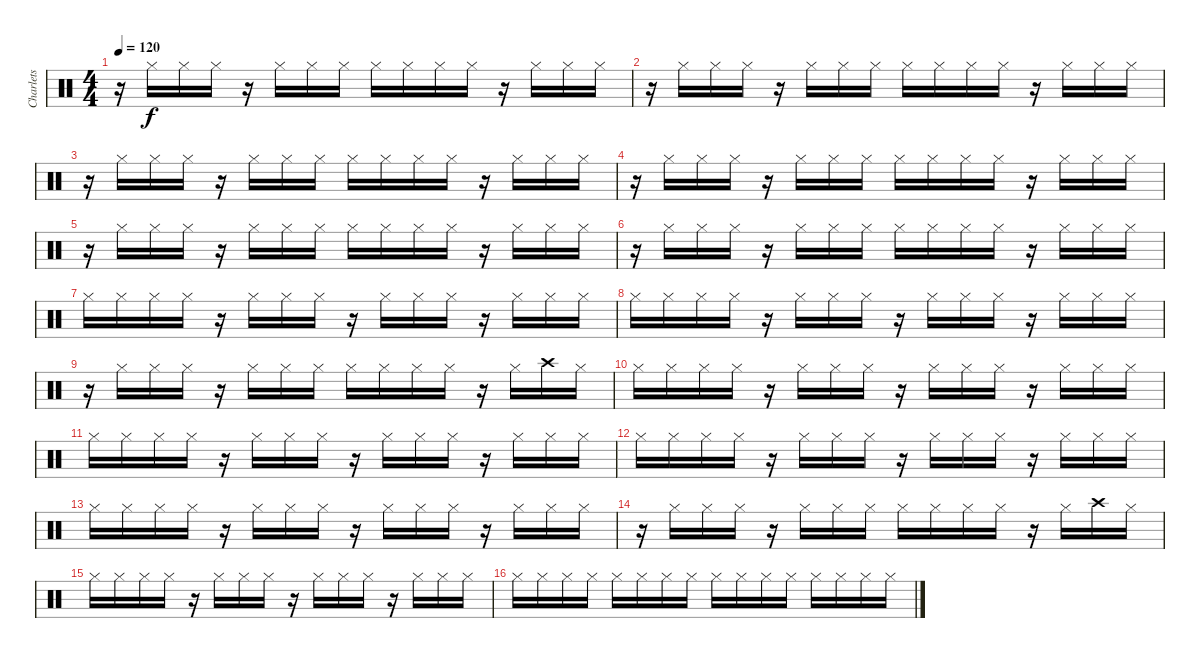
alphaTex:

\track ("Charlets" "Charlets") {instrument percussion}
\staff {score}
\articulation defaults
\ts (4 4)
\tempo 120
\clef neutral
\ks c
r.16{dy f} "Hi-Hat (closed)".16 "Hi-Hat (closed)".16 "Hi-Hat (closed)".16 r.16 "Hi-Hat (closed)".16 "Hi-Hat (closed)".16 "Hi-Hat (closed)".16 "Hi-Hat (closed)".16 "Hi-Hat (closed)".16 "Hi-Hat (closed)".16 "Hi-Hat (closed)".16 r.16 "Hi-Hat (closed)".16 "Hi-Hat (closed)".16 "Hi-Hat (closed)".16 |
r.16 "Hi-Hat (closed)".16 "Hi-Hat (closed)".16 "Hi-Hat (closed)".16 r.16 "Hi-Hat (closed)".16 "Hi-Hat (closed)".16 "Hi-Hat (closed)".16 "Hi-Hat (closed)".16 "Hi-Hat (closed)".16 "Hi-Hat (closed)".16 "Hi-Hat (closed)".16 r.16 "Hi-Hat (closed)".16 "Hi-Hat (closed)".16 "Hi-Hat (closed)".16 |
r.16 "Hi-Hat (closed)".16 "Hi-Hat (closed)".16 "Hi-Hat (closed)".16 r.16 "Hi-Hat (closed)".16 "Hi-Hat (closed)".16 "Hi-Hat (closed)".16 "Hi-Hat (closed)".16 "Hi-Hat (closed)".16 "Hi-Hat (closed)".16 "Hi-Hat (closed)".16 r.16 "Hi-Hat (closed)".16 "Hi-Hat (closed)".16 "Hi-Hat (closed)".16 |
r.16 "Hi-Hat (closed)".16 "Hi-Hat (closed)".16 "Hi-Hat (closed)".16 r.16 "Hi-Hat (closed)".16 "Hi-Hat (closed)".16 "Hi-Hat (closed)".16 "Hi-Hat (closed)".16 "Hi-Hat (closed)".16 "Hi-Hat (closed)".16 "Hi-Hat (closed)".16 r.16 "Hi-Hat (closed)".16 "Hi-Hat (closed)".16 "Hi-Hat (closed)".16 |
r.16 "Hi-Hat (closed)".16 "Hi-Hat (closed)".16 "Hi-Hat (closed)".16 r.16 "Hi-Hat (closed)".16 "Hi-Hat (closed)".16 "Hi-Hat (closed)".16 "Hi-Hat (closed)".16 "Hi-Hat (closed)".16 "Hi-Hat (closed)".16 "Hi-Hat (closed)".16 r.16 "Hi-Hat (closed)".16 "Hi-Hat (closed)".16 "Hi-Hat (closed)".16 |
r.16 "Hi-Hat (closed)".16 "Hi-Hat (closed)".16 "Hi-Hat (closed)".16 r.16 "Hi-Hat (closed)".16 "Hi-Hat (closed)".16 "Hi-Hat (closed)".16 "Hi-Hat (closed)".16 "Hi-Hat (closed)".16 "Hi-Hat (closed)".16 "Hi-Hat (closed)".16 r.16 "Hi-Hat (closed)".16 "Hi-Hat (closed)".16 "Hi-Hat (closed)".16 |
"Hi-Hat (closed)".16 "Hi-Hat (closed)".16 "Hi-Hat (closed)".16 "Hi-Hat (closed)".16 r.16 "Hi-Hat (closed)".16 "Hi-Hat (closed)".16 "Hi-Hat (closed)".16 r.16 "Hi-Hat (closed)".16 "Hi-Hat (closed)".16 "Hi-Hat (closed)".16 r.16 "Hi-Hat (closed)".16 "Hi-Hat (closed)".16 "Hi-Hat (closed)".16 |
"Hi-Hat (closed)".16 "Hi-Hat (closed)".16 "Hi-Hat (closed)".16 "Hi-Hat (closed)".16 r.16 "Hi-Hat (closed)".16 "Hi-Hat (closed)".16 "Hi-Hat (closed)".16 r.16 "Hi-Hat (closed)".16 "Hi-Hat (closed)".16 "Hi-Hat (closed)".16 r.16 "Hi-Hat (closed)".16 "Hi-Hat (closed)".16 "Hi-Hat (closed)".16 |
r.16 "Hi-Hat (closed)".16 "Hi-Hat (closed)".16 "Hi-Hat (closed)".16 r.16 "Hi-Hat (closed)".16 "Hi-Hat (closed)".16 "Hi-Hat (closed)".16 "Hi-Hat (closed)".16 "Hi-Hat (closed)".16 "Hi-Hat (closed)".16 "Hi-Hat (closed)".16 r.16 "Hi-Hat (closed)".16 "Crash high (hit)".16 "Hi-Hat (closed)".16 |
"Hi-Hat (closed)".16 "Hi-Hat (closed)".16 "Hi-Hat (closed)".16 "Hi-Hat (closed)".16 r.16 "Hi-Hat (closed)".16 "Hi-Hat (closed)".16 "Hi-Hat (closed)".16 r.16 "Hi-Hat (closed)".16 "Hi-Hat (closed)".16 "Hi-Hat (closed)".16 r.16 "Hi-Hat (closed)".16 "Hi-Hat (closed)".16 "Hi-Hat (closed)".16 |
"Hi-Hat (closed)".16 "Hi-Hat (closed)".16 "Hi-Hat (closed)".16 "Hi-Hat (closed)".16 r.16 "Hi-Hat (closed)".16 "Hi-Hat (closed)".16 "Hi-Hat (closed)".16 r.16 "Hi-Hat (closed)".16 "Hi-Hat (closed)".16 "Hi-Hat (closed)".16 r.16 "Hi-Hat (closed)".16 "Hi-Hat (closed)".16 "Hi-Hat (closed)".16 |
"Hi-Hat (closed)".16 "Hi-Hat (closed)".16 "Hi-Hat (closed)".16 "Hi-Hat (closed)".16 r.16 "Hi-Hat (closed)".16 "Hi-Hat (closed)".16 "Hi-Hat (closed)".16 r.16 "Hi-Hat (closed)".16 "Hi-Hat (closed)".16 "Hi-Hat (closed)".16 r.16 "Hi-Hat (closed)".16 "Hi-Hat (closed)".16 "Hi-Hat (closed)".16 |
"Hi-Hat (closed)".16 "Hi-Hat (closed)".16 "Hi-Hat (closed)".16 "Hi-Hat (closed)".16 r.16 "Hi-Hat (closed)".16 "Hi-Hat (closed)".16 "Hi-Hat (closed)".16 r.16 "Hi-Hat (closed)".16 "Hi-Hat (closed)".16 "Hi-Hat (closed)".16 r.16 "Hi-Hat (closed)".16 "Hi-Hat (closed)".16 "Hi-Hat (closed)".16 |
r.16 "Hi-Hat (closed)".16 "Hi-Hat (closed)".16 "Hi-Hat (closed)".16 r.16 "Hi-Hat (closed)".16 "Hi-Hat (closed)".16 "Hi-Hat (closed)".16 "Hi-Hat (closed)".16 "Hi-Hat (closed)".16 "Hi-Hat (closed)".16 "Hi-Hat (closed)".16 r.16 "Hi-Hat (closed)".16 "Crash high (hit)".16 "Hi-Hat (closed)".16 |
"Hi-Hat (closed)".16 "Hi-Hat (closed)".16 "Hi-Hat (closed)".16 "Hi-Hat (closed)".16 r.16 "Hi-Hat (closed)".16 "Hi-Hat (closed)".16 "Hi-Hat (closed)".16 r.16 "Hi-Hat (closed)".16 "Hi-Hat (closed)".16 "Hi-Hat (closed)".16 r.16 "Hi-Hat (closed)".16 "Hi-Hat (closed)".16 "Hi-Hat (closed)".16 |
"Hi-Hat (closed)".16 "Hi-Hat (closed)".16 "Hi-Hat (closed)".16 "Hi-Hat (closed)".16 "Hi-Hat (closed)".16 "Hi-Hat (closed)".16 "Hi-Hat (closed)".16 "Hi-Hat (closed)".16 "Hi-Hat (closed)".16 "Hi-Hat (closed)".16 "Hi-Hat (closed)".16 "Hi-Hat (closed)".16 "Hi-Hat (closed)".16 "Hi-Hat (closed)".16 "Hi-Hat (closed)".16 "Hi-Hat (closed)".16
